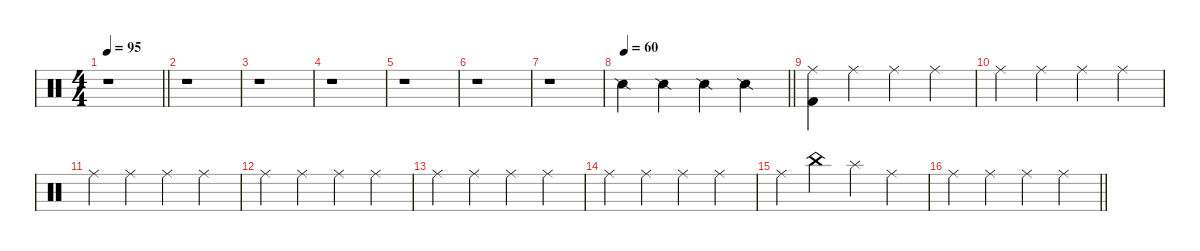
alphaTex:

\defaultSystemsLayout 4
\hideDynamics
\bracketExtendMode nobrackets
\singleTrackTrackNamePolicy hidden
\multiTrackTrackNamePolicy hidden
\firstSystemTrackNameMode fullname
\otherSystemsTrackNameOrientation horizontal
\track ("Percussions" "drm.") {defaultSystemsLayout 4 instrument percussion}
\staff {score}
\articulation defaults
\ts (4 4)
\tempo 95
\clef neutral
\barLineRight lightlight
\ks c
r.1{dy ff beam Down} |
r.1{beam Down} |
r.1{beam Down} |
r.1{beam Down} |
r.1{beam Down} |
r.1{beam Down} |
r.1{beam Down} |
\tempo 60
\barLineRight lightlight "Snare (side stick) 2".4{beam Down} "Snare (side stick) 2".4{beam Down} "Snare (side stick) 2".4{beam Down} "Snare (side stick) 2".4{beam Down}
|
("Ride (middle)" "Kick (hit) 2").4{dy f beam Down} "Ride (middle)".4{beam Down} "Ride (middle)".4{beam Down} "Ride (middle)".4{beam Down} |
"Ride (middle)".4{beam Down} "Ride (middle)".4{beam Down} "Ride (middle)".4{beam Down} "Ride (middle)".4{beam Down} |
"Ride (middle)".4{beam Down} "Ride (middle)".4{beam Down} "Ride (middle)".4{beam Down} "Ride (middle)".4{beam Down} |
"Ride (middle)".4{beam Down} "Ride (middle)".4{beam Down} "Ride (middle)".4{beam Down} "Ride (middle)".4{beam Down} |
"Ride (middle)".4{beam Down} "Ride (middle)".4{beam Down} "Ride (middle)".4{beam Down} "Ride (middle)".4{beam Down} |
"Ride (middle)".4{beam Down} "Ride (middle)".4{beam Down} "Ride (middle)".4{beam Down} "Ride (middle)".4{beam Down} |
"Ride (middle)".4{beam Down} "China (hit)".4{dy mp beam Down} "Splash (hit)".4{beam Down} "Ride (middle)".4{dy f beam Down} |
\barLineRight lightlight "Ride (middle)".4{beam Down} "Ride (middle)".4{beam Down} "Ride (middle)".4{beam Down} "Ride (middle)".4{beam Down}
